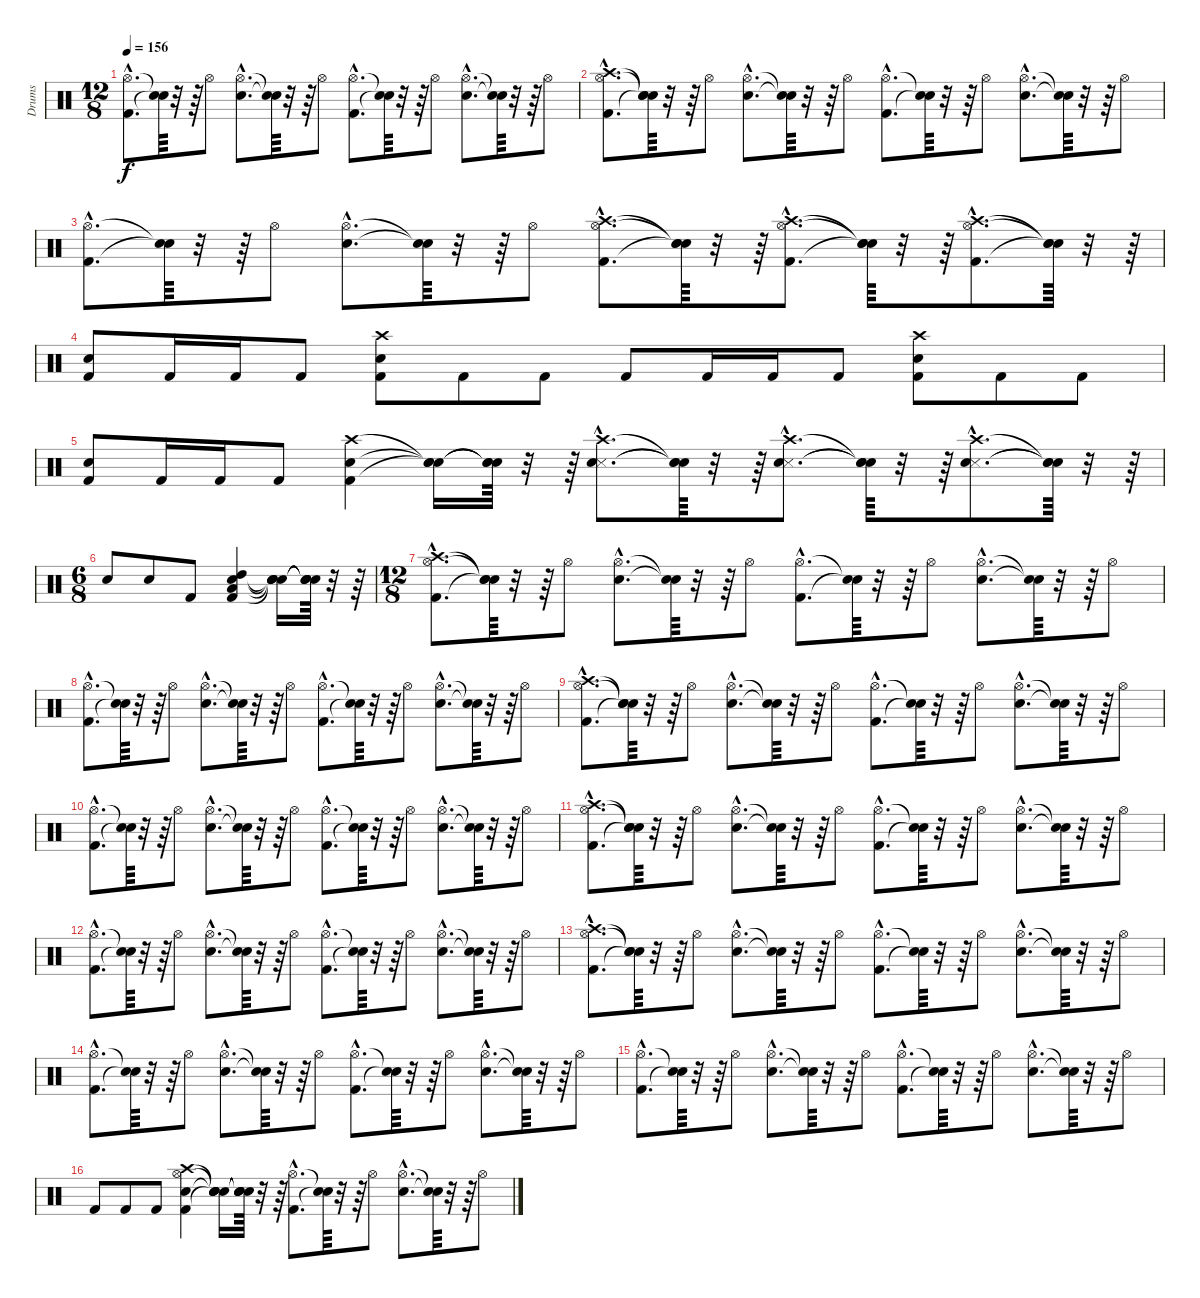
\track ("Drums" "Drums") {instrument percussion}
\staff {score}
\articulation defaults
\ts (12 8)
\tempo 156
\clef neutral
\ks c
("Kick (hit) 2"{hac} "Hi-Hat (open)"{hac}).8{d dy f} ("Snare (hit)"{t} "Snare (hit)"{t}).64 r.32 r.64 "Hi-Hat (open)".8 ("Snare (hit) 2"{hac} "Hi-Hat (open)"{hac}).8{d} ("Snare (hit)"{t} "Snare (hit)"{t}).64 r.32 r.64 "Hi-Hat (open)".8 ("Kick (hit) 2"{hac} "Hi-Hat (open)"{hac}).8{d} ("Snare (hit)"{t} "Snare (hit)"{t}).64 r.32 r.64 "Hi-Hat (open)".8 ("Snare (hit) 2"{hac} "Hi-Hat (open)"{hac}).8{d} ("Snare (hit)"{t} "Snare (hit)"{t}).64 r.32 r.64 "Hi-Hat (open)".8 |
("Kick (hit) 2"{hac} "Hi-Hat (open)"{hac} "Crash high (hit)"{hac}).8{d} ("Snare (hit)"{t} "Snare (hit)"{t} "Snare (hit)"{t}).64 r.32 r.64 "Hi-Hat (open)".8 ("Snare (hit) 2"{hac} "Hi-Hat (open)"{hac}).8{d} ("Snare (hit)"{t} "Snare (hit)"{t}).64 r.32 r.64 "Hi-Hat (open)".8 ("Kick (hit) 2"{hac} "Hi-Hat (open)"{hac}).8{d} ("Snare (hit)"{t} "Snare (hit)"{t}).64 r.32 r.64 "Hi-Hat (open)".8 ("Snare (hit) 2"{hac} "Hi-Hat (open)"{hac}).8{d} ("Snare (hit)"{t} "Snare (hit)"{t}).64 r.32 r.64 "Hi-Hat (open)".8 |
("Kick (hit) 2"{hac} "Hi-Hat (open)"{hac}).8{d} ("Snare (hit)"{t} "Snare (hit)"{t}).64 r.32 r.64 "Hi-Hat (open)".8 ("Snare (hit) 2"{hac} "Hi-Hat (open)"{hac}).8{d} ("Snare (hit)"{t} "Snare (hit)"{t}).64 r.32 r.64 "Hi-Hat (open)".8 ("Kick (hit) 2"{hac} "Hi-Hat (open)"{hac} "Crash high (hit)"{hac}).8{d} ("Snare (hit)"{t} "Snare (hit)"{t} "Snare (hit)"{t}).64 r.32 r.64 ("Kick (hit) 2"{hac} "Hi-Hat (open)"{hac} "Crash high (hit)"{hac}).8{d} ("Snare (hit)"{t} "Snare (hit)"{t} "Snare (hit)"{t}).64 r.32 r.64 ("Kick (hit) 2"{hac} "Hi-Hat (open)"{hac} "Crash high (hit)"{hac}).8{d} ("Snare (hit)"{t} "Snare (hit)"{t} "Snare (hit)"{t}).64 r.32 r.64 |
("Kick (hit) 2" "Snare (hit) 2").8 "Kick (hit) 2".16 "Kick (hit) 2".16 "Kick (hit) 2".8 ("Kick (hit) 2" "Snare (hit) 2" "Crash high (hit)").8 "Kick (hit) 2".8 "Kick (hit) 2".8 "Kick (hit) 2".8 "Kick (hit) 2".16 "Kick (hit) 2".16 "Kick (hit) 2".8 ("Kick (hit) 2" "Snare (hit) 2" "Crash high (hit)").8 "Kick (hit) 2".8 "Kick (hit) 2".8 |
("Kick (hit) 2" "Snare (hit) 2").8 "Kick (hit) 2".16 "Kick (hit) 2".16 "Kick (hit) 2".8 ("Kick (hit) 2" "Snare (hit) 2" "Crash high (hit)").4 ("Snare (hit)"{t} "Snare (hit)"{t} "Snare (hit)"{t}).16 ("Snare (hit)"{t} "Snare (hit)"{t} "Snare (hit)"{t}).64 r.32 r.64 ("Snare (side stick) 3"{hac} "Snare (hit) 2"{hac} "Crash high (hit)"{hac}).8{d} ("Snare (hit)"{t} "Snare (hit)"{t} "Snare (hit)"{t}).64 r.32 r.64 ("Snare (side stick) 3"{hac} "Snare (hit) 2"{hac} "Crash high (hit)"{hac}).8{d} ("Snare (hit)"{t} "Snare (hit)"{t} "Snare (hit)"{t}).64 r.32 r.64 ("Snare (side stick) 3"{hac} "Snare (hit) 2"{hac} "Crash high (hit)"{hac}).8{d} ("Snare (hit)"{t} "Snare (hit)"{t} "Snare (hit)"{t}).64 r.32 r.64 |
\ts (6 8)
"Snare (hit) 2".8 "Snare (hit) 2".8 "Kick (hit) 2".8 ("Kick (hit) 2" "Snare (hit) 2" "Low Floor Tom (hit)" "High Tom (hit)").4 ("Snare (hit)"{t} "Snare (hit)"{t} "Snare (hit)"{t} "Snare (hit)"{t}).16 ("Snare (hit)"{t} "Snare (hit)"{t} "Snare (hit)"{t} "Snare (hit)"{t}).64 r.32 r.64 |
\ts (12 8)
("Kick (hit) 2"{hac} "Hi-Hat (open)"{hac} "Crash high (hit)"{hac}).8{d} ("Snare (hit)"{t} "Snare (hit)"{t} "Snare (hit)"{t}).64 r.32 r.64 "Hi-Hat (open)".8 ("Snare (hit) 2"{hac} "Hi-Hat (open)"{hac}).8{d} ("Snare (hit)"{t} "Snare (hit)"{t}).64 r.32 r.64 "Hi-Hat (open)".8 ("Kick (hit) 2"{hac} "Hi-Hat (open)"{hac}).8{d} ("Snare (hit)"{t} "Snare (hit)"{t}).64 r.32 r.64 "Hi-Hat (open)".8 ("Snare (hit) 2"{hac} "Hi-Hat (open)"{hac}).8{d} ("Snare (hit)"{t} "Snare (hit)"{t}).64 r.32 r.64 "Hi-Hat (open)".8 |
("Kick (hit) 2"{hac} "Hi-Hat (open)"{hac}).8{d} ("Snare (hit)"{t} "Snare (hit)"{t}).64 r.32 r.64 "Hi-Hat (open)".8 ("Snare (hit) 2"{hac} "Hi-Hat (open)"{hac}).8{d} ("Snare (hit)"{t} "Snare (hit)"{t}).64 r.32 r.64 "Hi-Hat (open)".8 ("Kick (hit) 2"{hac} "Hi-Hat (open)"{hac}).8{d} ("Snare (hit)"{t} "Snare (hit)"{t}).64 r.32 r.64 "Hi-Hat (open)".8 ("Snare (hit) 2"{hac} "Hi-Hat (open)"{hac}).8{d} ("Snare (hit)"{t} "Snare (hit)"{t}).64 r.32 r.64 "Hi-Hat (open)".8 |
("Kick (hit) 2"{hac} "Hi-Hat (open)"{hac} "Crash high (hit)"{hac}).8{d} ("Snare (hit)"{t} "Snare (hit)"{t} "Snare (hit)"{t}).64 r.32 r.64 "Hi-Hat (open)".8 ("Snare (hit) 2"{hac} "Hi-Hat (open)"{hac}).8{d} ("Snare (hit)"{t} "Snare (hit)"{t}).64 r.32 r.64 "Hi-Hat (open)".8 ("Kick (hit) 2"{hac} "Hi-Hat (open)"{hac}).8{d} ("Snare (hit)"{t} "Snare (hit)"{t}).64 r.32 r.64 "Hi-Hat (open)".8 ("Snare (hit) 2"{hac} "Hi-Hat (open)"{hac}).8{d} ("Snare (hit)"{t} "Snare (hit)"{t}).64 r.32 r.64 "Hi-Hat (open)".8 |
("Kick (hit) 2"{hac} "Hi-Hat (open)"{hac}).8{d} ("Snare (hit)"{t} "Snare (hit)"{t}).64 r.32 r.64 "Hi-Hat (open)".8 ("Snare (hit) 2"{hac} "Hi-Hat (open)"{hac}).8{d} ("Snare (hit)"{t} "Snare (hit)"{t}).64 r.32 r.64 "Hi-Hat (open)".8 ("Kick (hit) 2"{hac} "Hi-Hat (open)"{hac}).8{d} ("Snare (hit)"{t} "Snare (hit)"{t}).64 r.32 r.64 "Hi-Hat (open)".8 ("Snare (hit) 2"{hac} "Hi-Hat (open)"{hac}).8{d} ("Snare (hit)"{t} "Snare (hit)"{t}).64 r.32 r.64 "Hi-Hat (open)".8 |
("Kick (hit) 2"{hac} "Hi-Hat (open)"{hac} "Crash high (hit)"{hac}).8{d} ("Snare (hit)"{t} "Snare (hit)"{t} "Snare (hit)"{t}).64 r.32 r.64 "Hi-Hat (open)".8 ("Snare (hit) 2"{hac} "Hi-Hat (open)"{hac}).8{d} ("Snare (hit)"{t} "Snare (hit)"{t}).64 r.32 r.64 "Hi-Hat (open)".8 ("Kick (hit) 2"{hac} "Hi-Hat (open)"{hac}).8{d} ("Snare (hit)"{t} "Snare (hit)"{t}).64 r.32 r.64 "Hi-Hat (open)".8 ("Snare (hit) 2"{hac} "Hi-Hat (open)"{hac}).8{d} ("Snare (hit)"{t} "Snare (hit)"{t}).64 r.32 r.64 "Hi-Hat (open)".8 |
("Kick (hit) 2"{hac} "Hi-Hat (open)"{hac}).8{d} ("Snare (hit)"{t} "Snare (hit)"{t}).64 r.32 r.64 "Hi-Hat (open)".8 ("Snare (hit) 2"{hac} "Hi-Hat (open)"{hac}).8{d} ("Snare (hit)"{t} "Snare (hit)"{t}).64 r.32 r.64 "Hi-Hat (open)".8 ("Kick (hit) 2"{hac} "Hi-Hat (open)"{hac}).8{d} ("Snare (hit)"{t} "Snare (hit)"{t}).64 r.32 r.64 "Hi-Hat (open)".8 ("Snare (hit) 2"{hac} "Hi-Hat (open)"{hac}).8{d} ("Snare (hit)"{t} "Snare (hit)"{t}).64 r.32 r.64 "Hi-Hat (open)".8 |
("Kick (hit) 2"{hac} "Hi-Hat (open)"{hac} "Crash high (hit)"{hac}).8{d} ("Snare (hit)"{t} "Snare (hit)"{t} "Snare (hit)"{t}).64 r.32 r.64 "Hi-Hat (open)".8 ("Snare (hit) 2"{hac} "Hi-Hat (open)"{hac}).8{d} ("Snare (hit)"{t} "Snare (hit)"{t}).64 r.32 r.64 "Hi-Hat (open)".8 ("Kick (hit) 2"{hac} "Hi-Hat (open)"{hac}).8{d} ("Snare (hit)"{t} "Snare (hit)"{t}).64 r.32 r.64 "Hi-Hat (open)".8 ("Snare (hit) 2"{hac} "Hi-Hat (open)"{hac}).8{d} ("Snare (hit)"{t} "Snare (hit)"{t}).64 r.32 r.64 "Hi-Hat (open)".8 |
("Kick (hit) 2"{hac} "Hi-Hat (open)"{hac}).8{d} ("Snare (hit)"{t} "Snare (hit)"{t}).64 r.32 r.64 "Hi-Hat (open)".8 ("Snare (hit) 2"{hac} "Hi-Hat (open)"{hac}).8{d} ("Snare (hit)"{t} "Snare (hit)"{t}).64 r.32 r.64 "Hi-Hat (open)".8 ("Kick (hit) 2"{hac} "Hi-Hat (open)"{hac}).8{d} ("Snare (hit)"{t} "Snare (hit)"{t}).64 r.32 r.64 "Hi-Hat (open)".8 ("Snare (hit) 2"{hac} "Hi-Hat (open)"{hac}).8{d} ("Snare (hit)"{t} "Snare (hit)"{t}).64 r.32 r.64 "Hi-Hat (open)".8 |
("Kick (hit) 2"{hac} "Hi-Hat (open)"{hac}).8{d} ("Snare (hit)"{t} "Snare (hit)"{t}).64 r.32 r.64 "Hi-Hat (open)".8 ("Snare (hit) 2"{hac} "Hi-Hat (open)"{hac}).8{d} ("Snare (hit)"{t} "Snare (hit)"{t}).64 r.32 r.64 "Hi-Hat (open)".8 ("Kick (hit) 2"{hac} "Hi-Hat (open)"{hac}).8{d} ("Snare (hit)"{t} "Snare (hit)"{t}).64 r.32 r.64 "Hi-Hat (open)".8 ("Snare (hit) 2"{hac} "Hi-Hat (open)"{hac}).8{d} ("Snare (hit)"{t} "Snare (hit)"{t}).64 r.32 r.64 "Hi-Hat (open)".8 |
"Kick (hit) 2".8 "Kick (hit) 2".8 "Kick (hit) 2".8 ("Kick (hit) 2" "Snare (hit) 2" "Hi-Hat (open)" "Crash high (hit)").4 ("Snare (hit)"{t} "Snare (hit)"{t} "Snare (hit)"{t} "Snare (hit)"{t}).16 ("Snare (hit)"{t} "Snare (hit)"{t} "Snare (hit)"{t} "Snare (hit)"{t}).64 r.32 r.64 ("Kick (hit) 2"{hac} "Hi-Hat (open)"{hac}).8{d} ("Snare (hit)"{t} "Snare (hit)"{t}).64 r.32 r.64 "Hi-Hat (open)".8 ("Snare (hit) 2"{hac} "Hi-Hat (open)"{hac}).8{d} ("Snare (hit)"{t} "Snare (hit)"{t}).64 r.32 r.64 "Hi-Hat (open)".8
